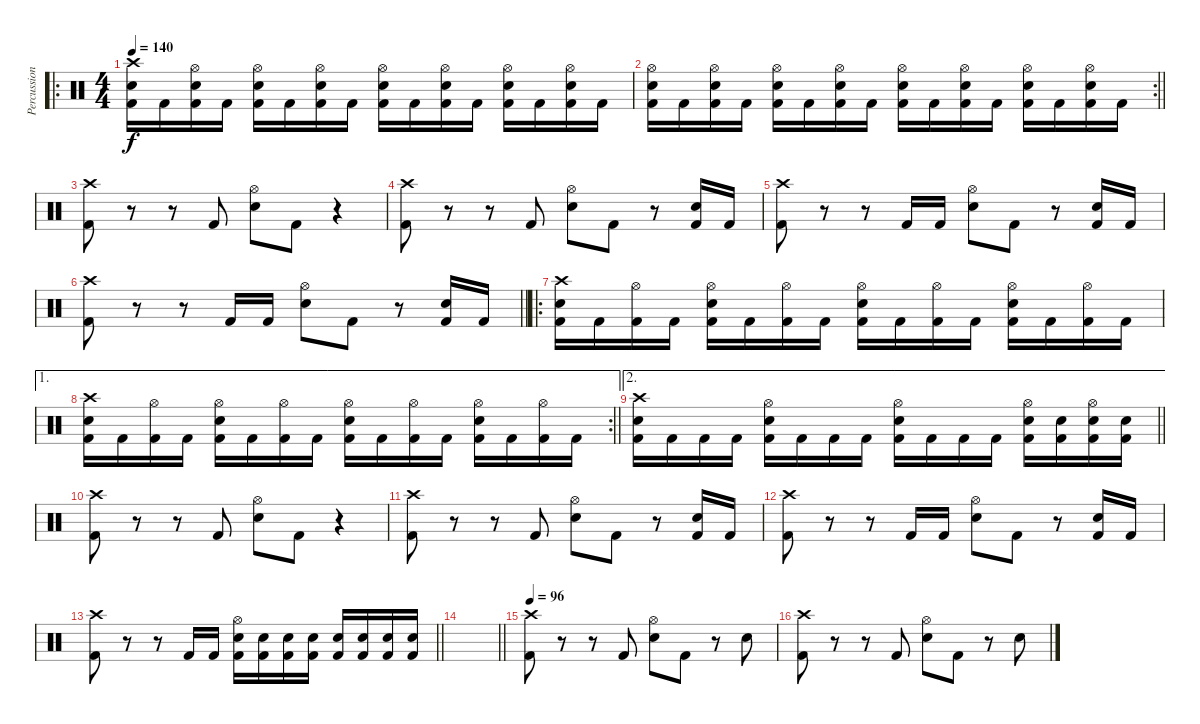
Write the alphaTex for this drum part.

\track ("Percussion" "Percussion") {instrument percussion}
\staff {score}
\articulation defaults
\ro
\ts (4 4)
\tempo 140
\clef neutral
\ks c
("Crash high (hit)" "Electric Snare (hit)" "Kick (hit) 2").16{dy f} "Kick (hit) 2".16 ("Hi-Hat (open)" "Electric Snare (hit)" "Kick (hit) 2").16 "Kick (hit) 2".16 ("Hi-Hat (open)" "Electric Snare (hit)" "Kick (hit) 2").16 "Kick (hit) 2".16 ("Hi-Hat (open)" "Electric Snare (hit)" "Kick (hit) 2").16 "Kick (hit) 2".16 ("Hi-Hat (open)" "Electric Snare (hit)" "Kick (hit) 2").16 "Kick (hit) 2".16 ("Hi-Hat (open)" "Electric Snare (hit)" "Kick (hit) 2").16 "Kick (hit) 2".16 ("Hi-Hat (open)" "Electric Snare (hit)" "Kick (hit) 2").16 "Kick (hit) 2".16 ("Hi-Hat (open)" "Electric Snare (hit)" "Kick (hit) 2").16 "Kick (hit) 2".16 |
\rc 2
\barLineRight lightlight
("Hi-Hat (open)" "Electric Snare (hit)" "Kick (hit) 2").16 "Kick (hit) 2".16 ("Hi-Hat (open)" "Electric Snare (hit)" "Kick (hit) 2").16 "Kick (hit) 2".16 ("Hi-Hat (open)" "Electric Snare (hit)" "Kick (hit) 2").16 "Kick (hit) 2".16 ("Hi-Hat (open)" "Electric Snare (hit)" "Kick (hit) 2").16 "Kick (hit) 2".16 ("Hi-Hat (open)" "Electric Snare (hit)" "Kick (hit) 2").16 "Kick (hit) 2".16 ("Hi-Hat (open)" "Electric Snare (hit)" "Kick (hit) 2").16 "Kick (hit) 2".16 ("Hi-Hat (open)" "Electric Snare (hit)" "Kick (hit) 2").16 "Kick (hit) 2".16 ("Hi-Hat (open)" "Electric Snare (hit)" "Kick (hit) 2").16 "Kick (hit) 2".16 |
\section ("" "")
("Crash high (hit)" "Kick (hit) 2").8 r.8 r.8 "Kick (hit) 2".8 ("Hi-Hat (open)" "Electric Snare (hit)").8 "Kick (hit) 2".8 r.4 |
("Crash high (hit)" "Kick (hit) 2").8 r.8 r.8 "Kick (hit) 2".8 ("Hi-Hat (open)" "Electric Snare (hit)").8 "Kick (hit) 2".8 r.8 ("Electric Snare (hit)" "Kick (hit) 2").16 "Kick (hit) 2".16 |
("Crash high (hit)" "Kick (hit) 2").8 r.8 r.8 "Kick (hit) 2".16 "Kick (hit) 2".16 ("Hi-Hat (open)" "Electric Snare (hit)").8 "Kick (hit) 2".8 r.8 ("Electric Snare (hit)" "Kick (hit) 2").16 "Kick (hit) 2".16 |
\barLineRight lightlight
("Crash high (hit)" "Kick (hit) 2").8 r.8 r.8 "Kick (hit) 2".16 "Kick (hit) 2".16 ("Hi-Hat (open)" "Electric Snare (hit)").8 "Kick (hit) 2".8 r.8 ("Electric Snare (hit)" "Kick (hit) 2").16 "Kick (hit) 2".16 |
\ro
\section ("" "")
("Crash high (hit)" "Electric Snare (hit)" "Kick (hit) 2").16 "Kick (hit) 2".16 ("Hi-Hat (open)" "Kick (hit) 2").16 "Kick (hit) 2".16 ("Hi-Hat (open)" "Electric Snare (hit)" "Kick (hit) 2").16 "Kick (hit) 2".16 ("Hi-Hat (open)" "Kick (hit) 2").16 "Kick (hit) 2".16 ("Hi-Hat (open)" "Electric Snare (hit)" "Kick (hit) 2").16 "Kick (hit) 2".16 ("Hi-Hat (open)" "Kick (hit) 2").16 "Kick (hit) 2".16 ("Hi-Hat (open)" "Electric Snare (hit)" "Kick (hit) 2").16 "Kick (hit) 2".16 ("Hi-Hat (open)" "Kick (hit) 2").16 "Kick (hit) 2".16 |
\ae 1
\rc 2
\barLineRight lightlight
("Crash high (hit)" "Electric Snare (hit)" "Kick (hit) 2").16 "Kick (hit) 2".16 ("Hi-Hat (open)" "Kick (hit) 2").16 "Kick (hit) 2".16 ("Hi-Hat (open)" "Electric Snare (hit)" "Kick (hit) 2").16 "Kick (hit) 2".16 ("Hi-Hat (open)" "Kick (hit) 2").16 "Kick (hit) 2".16 ("Hi-Hat (open)" "Electric Snare (hit)" "Kick (hit) 2").16 "Kick (hit) 2".16 ("Hi-Hat (open)" "Kick (hit) 2").16 "Kick (hit) 2".16 ("Hi-Hat (open)" "Electric Snare (hit)" "Kick (hit) 2").16 "Kick (hit) 2".16 ("Hi-Hat (open)" "Kick (hit) 2").16 "Kick (hit) 2".16 |
\ae 2
\barLineRight lightlight
("Crash high (hit)" "Electric Snare (hit)" "Kick (hit) 2").16 "Kick (hit) 2".16 "Kick (hit) 2".16 "Kick (hit) 2".16 ("Hi-Hat (open)" "Electric Snare (hit)" "Kick (hit) 2").16 "Kick (hit) 2".16 "Kick (hit) 2".16 "Kick (hit) 2".16 ("Hi-Hat (open)" "Electric Snare (hit)" "Kick (hit) 2").16 "Kick (hit) 2".16 "Kick (hit) 2".16 "Kick (hit) 2".16 ("Hi-Hat (open)" "Electric Snare (hit)" "Kick (hit) 2").16 ("Electric Snare (hit)" "Kick (hit) 2").16 ("Hi-Hat (open)" "Electric Snare (hit)" "Kick (hit) 2").16 ("Electric Snare (hit)" "Kick (hit) 2").16 |
\section ("" "")
("Crash high (hit)" "Kick (hit) 2").8 r.8 r.8 "Kick (hit) 2".8 ("Hi-Hat (open)" "Electric Snare (hit)").8 "Kick (hit) 2".8 r.4 |
("Crash high (hit)" "Kick (hit) 2").8 r.8 r.8 "Kick (hit) 2".8 ("Hi-Hat (open)" "Electric Snare (hit)").8 "Kick (hit) 2".8 r.8 ("Electric Snare (hit)" "Kick (hit) 2").16 "Kick (hit) 2".16 |
("Crash high (hit)" "Kick (hit) 2").8 r.8 r.8 "Kick (hit) 2".16 "Kick (hit) 2".16 ("Hi-Hat (open)" "Electric Snare (hit)").8 "Kick (hit) 2".8 r.8 ("Electric Snare (hit)" "Kick (hit) 2").16 "Kick (hit) 2".16 |
\barLineRight lightlight
("Crash high (hit)" "Kick (hit) 2").8 r.8 r.8 "Kick (hit) 2".16 "Kick (hit) 2".16 ("Hi-Hat (open)" "Electric Snare (hit)" "Kick (hit) 2").16 ("Electric Snare (hit)" "Kick (hit) 2").16 ("Electric Snare (hit)" "Kick (hit) 2").16 ("Electric Snare (hit)" "Kick (hit) 2").16 ("Electric Snare (hit)" "Kick (hit) 2").16 ("Electric Snare (hit)" "Kick (hit) 2").16 ("Electric Snare (hit)" "Kick (hit) 2").16 ("Electric Snare (hit)" "Kick (hit) 2").16 |
\barLineRight lightlight
|
\section ("" "")
\tempo 96
("Crash high (hit)" "Kick (hit) 2").8 r.8 r.8 "Kick (hit) 2".8 ("Hi-Hat (open)" "Electric Snare (hit)").8 "Kick (hit) 2".8 r.8 "Electric Snare (hit)".8 |
("Crash high (hit)" "Kick (hit) 2").8 r.8 r.8 "Kick (hit) 2".8 ("Hi-Hat (open)" "Electric Snare (hit)").8 "Kick (hit) 2".8 r.8 "Electric Snare (hit)".8
